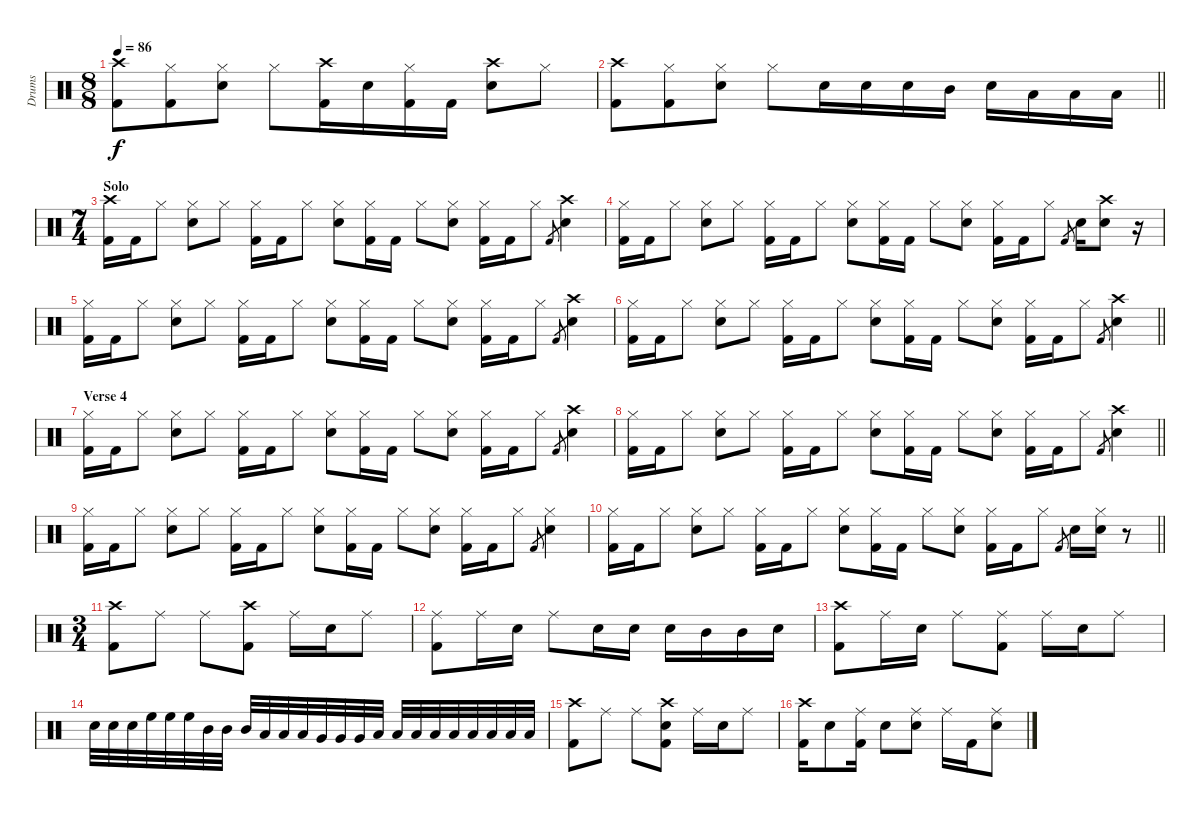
\track ("Drums" "Drums") {instrument percussion}
\staff {score}
\articulation defaults
\ts (8 8)
\tempo 86
\clef neutral
\ks c
("Crash high (hit)" "Kick (hit) 2").8{dy f} ("Hi-Hat (closed)" "Kick (hit) 2").8 ("Hi-Hat (closed)" "Snare (hit) 2").8 "Hi-Hat (closed)".8 ("Crash high (hit)" "Kick (hit) 2").16 "Snare (hit) 2".16 ("Hi-Hat (closed)" "Kick (hit) 2").16 "Kick (hit) 2".16 ("Crash high (hit)" "Snare (hit) 2").8 "Hi-Hat (closed)".8 |
\barLineRight lightlight
("Crash high (hit)" "Kick (hit) 2").8 ("Hi-Hat (closed)" "Kick (hit) 2").8 ("Hi-Hat (closed)" "Snare (hit) 2").8 "Hi-Hat (closed)".8 "Snare (hit) 2".16 "Snare (hit) 2".16 "Snare (hit) 2".16 "Mid Tom (hit)".16 "Snare (hit) 2".16 "Low Tom (hit)".16 "Low Tom (hit)".16 "Low Tom (hit)".16 |
\ts (7 4)
\section ("" "Solo")
("Crash high (hit)" "Kick (hit) 2").16 "Kick (hit) 2".16 "Hi-Hat (closed)".8 ("Hi-Hat (closed)" "Snare (hit) 2").8 "Hi-Hat (closed)".8 ("Hi-Hat (closed)" "Kick (hit) 2").16 "Kick (hit) 2".16 "Hi-Hat (closed)".8 ("Hi-Hat (closed)" "Snare (hit) 2").8 ("Hi-Hat (closed)" "Kick (hit) 2").16 "Kick (hit) 2".16 "Hi-Hat (closed)".8 ("Hi-Hat (closed)" "Snare (hit) 2").8 ("Hi-Hat (closed)" "Kick (hit) 2").16 "Kick (hit) 2".16 "Hi-Hat (closed)".8 "Kick (hit) 2".8{gr} ("Crash high (hit)" "Snare (hit) 2").4 |
("Hi-Hat (closed)" "Kick (hit) 2").16 "Kick (hit) 2".16 "Hi-Hat (closed)".8 ("Hi-Hat (closed)" "Snare (hit) 2").8 "Hi-Hat (closed)".8 ("Hi-Hat (closed)" "Kick (hit) 2").16 "Kick (hit) 2".16 "Hi-Hat (closed)".8 ("Hi-Hat (closed)" "Snare (hit) 2").8 ("Hi-Hat (closed)" "Kick (hit) 2").16 "Kick (hit) 2".16 "Hi-Hat (closed)".8 ("Hi-Hat (closed)" "Snare (hit) 2").8 ("Hi-Hat (closed)" "Kick (hit) 2").16 "Kick (hit) 2".16 "Hi-Hat (closed)".8 "Kick (hit) 2".8{gr} "Snare (hit) 2".16 ("Crash high (hit)" "Snare (hit) 2").8 r.16 |
("Hi-Hat (closed)" "Kick (hit) 2").16 "Kick (hit) 2".16 "Hi-Hat (closed)".8 ("Hi-Hat (closed)" "Snare (hit) 2").8 "Hi-Hat (closed)".8 ("Hi-Hat (closed)" "Kick (hit) 2").16 "Kick (hit) 2".16 "Hi-Hat (closed)".8 ("Hi-Hat (closed)" "Snare (hit) 2").8 ("Hi-Hat (closed)" "Kick (hit) 2").16 "Kick (hit) 2".16 "Hi-Hat (closed)".8 ("Hi-Hat (closed)" "Snare (hit) 2").8 ("Hi-Hat (closed)" "Kick (hit) 2").16 "Kick (hit) 2".16 "Hi-Hat (closed)".8 "Kick (hit) 2".8{gr} ("Crash high (hit)" "Snare (hit) 2").4 |
\barLineRight lightlight
("Hi-Hat (closed)" "Kick (hit) 2").16 "Kick (hit) 2".16 "Hi-Hat (closed)".8 ("Hi-Hat (closed)" "Snare (hit) 2").8 "Hi-Hat (closed)".8 ("Hi-Hat (closed)" "Kick (hit) 2").16 "Kick (hit) 2".16 "Hi-Hat (closed)".8 ("Hi-Hat (closed)" "Snare (hit) 2").8 ("Hi-Hat (closed)" "Kick (hit) 2").16 "Kick (hit) 2".16 "Hi-Hat (closed)".8 ("Hi-Hat (closed)" "Snare (hit) 2").8 ("Hi-Hat (closed)" "Kick (hit) 2").16 "Kick (hit) 2".16 "Hi-Hat (closed)".8 "Kick (hit) 2".8{gr} ("Crash high (hit)" "Snare (hit) 2").4 |
\section ("" "Verse 4")
("Hi-Hat (closed)" "Kick (hit) 2").16 "Kick (hit) 2".16 "Hi-Hat (closed)".8 ("Hi-Hat (closed)" "Snare (hit) 2").8 "Hi-Hat (closed)".8 ("Hi-Hat (closed)" "Kick (hit) 2").16 "Kick (hit) 2".16 "Hi-Hat (closed)".8 ("Hi-Hat (closed)" "Snare (hit) 2").8 ("Hi-Hat (closed)" "Kick (hit) 2").16 "Kick (hit) 2".16 "Hi-Hat (closed)".8 ("Hi-Hat (closed)" "Snare (hit) 2").8 ("Hi-Hat (closed)" "Kick (hit) 2").16 "Kick (hit) 2".16 "Hi-Hat (closed)".8 "Kick (hit) 2".8{gr} ("Crash high (hit)" "Snare (hit) 2").4 |
\barLineRight lightlight
("Hi-Hat (closed)" "Kick (hit) 2").16 "Kick (hit) 2".16 "Hi-Hat (closed)".8 ("Hi-Hat (closed)" "Snare (hit) 2").8 "Hi-Hat (closed)".8 ("Hi-Hat (closed)" "Kick (hit) 2").16 "Kick (hit) 2".16 "Hi-Hat (closed)".8 ("Hi-Hat (closed)" "Snare (hit) 2").8 ("Hi-Hat (closed)" "Kick (hit) 2").16 "Kick (hit) 2".16 "Hi-Hat (closed)".8 ("Hi-Hat (closed)" "Snare (hit) 2").8 ("Hi-Hat (closed)" "Kick (hit) 2").16 "Kick (hit) 2".16 "Hi-Hat (closed)".8 "Kick (hit) 2".8{gr} ("Crash high (hit)" "Snare (hit) 2").4 |
("Hi-Hat (closed)" "Kick (hit) 2").16 "Kick (hit) 2".16 "Hi-Hat (closed)".8 ("Hi-Hat (closed)" "Snare (hit) 2").8 "Hi-Hat (closed)".8 ("Hi-Hat (closed)" "Kick (hit) 2").16 "Kick (hit) 2".16 "Hi-Hat (closed)".8 ("Hi-Hat (closed)" "Snare (hit) 2").8 ("Hi-Hat (closed)" "Kick (hit) 2").16 "Kick (hit) 2".16 "Hi-Hat (closed)".8 ("Hi-Hat (closed)" "Snare (hit) 2").8 ("Hi-Hat (closed)" "Kick (hit) 2").16 "Kick (hit) 2".16 "Hi-Hat (closed)".8 "Kick (hit) 2".8{gr} ("Hi-Hat (closed)" "Snare (hit) 2").4 |
\barLineRight lightlight
("Hi-Hat (closed)" "Kick (hit) 2").16 "Kick (hit) 2".16 "Hi-Hat (closed)".8 ("Hi-Hat (closed)" "Snare (hit) 2").8 "Hi-Hat (closed)".8 ("Hi-Hat (closed)" "Kick (hit) 2").16 "Kick (hit) 2".16 "Hi-Hat (closed)".8 ("Hi-Hat (closed)" "Snare (hit) 2").8 ("Hi-Hat (closed)" "Kick (hit) 2").16 "Kick (hit) 2".16 "Hi-Hat (closed)".8 ("Hi-Hat (closed)" "Snare (hit) 2").8 ("Hi-Hat (closed)" "Kick (hit) 2").16 "Kick (hit) 2".16 "Hi-Hat (closed)".8 "Kick (hit) 2".8{gr} "Snare (hit) 2".16 ("Hi-Hat (closed)" "Snare (hit) 2").16 r.8 |
\ts (3 4)
("Crash high (hit)" "Kick (hit) 2").8 "Ride (middle)".8 "Ride (middle)".8 ("Crash high (hit)" "Kick (hit) 2").8 "Ride (middle)".16 "Snare (hit) 2".16 "Ride (middle)".8 |
("Ride (middle)" "Kick (hit) 2").8 "Ride (middle)".16 "Snare (hit) 2".16 "Ride (middle)".8 "Snare (hit) 2".16 "Snare (hit) 2".16 "Snare (hit) 2".16 "Mid Tom (hit)".16 "Mid Tom (hit)".16 "Snare (hit) 2".16 |
("Crash high (hit)" "Kick (hit) 2").8 "Ride (middle)".16 "Snare (hit) 2".16 "Ride (middle)".8 ("Ride (middle)" "Kick (hit) 2").8 "Ride (middle)".16 "Snare (hit) 2".16 "Ride (middle)".8 |
"Snare (hit) 2".32 "Snare (hit) 2".32 "Snare (hit) 2".32 "High Floor Tom (hit)".32 "High Floor Tom (hit)".32 "High Floor Tom (hit)".32 "Mid Tom (hit)".32 "Mid Tom (hit)".32 "Mid Tom (hit)".32 "Low Tom (hit)".32 "Low Tom (hit)".32 "Low Tom (hit)".32 "Very Low Tom (hit)".32 "Very Low Tom (hit)".32 "Very Low Tom (hit)".32 "Low Floor Tom (hit)".32 "Low Floor Tom (hit)".32 "Low Floor Tom (hit)".32 "Low Floor Tom (hit)".32 "Low Floor Tom (hit)".32 "Low Floor Tom (hit)".32 "Low Floor Tom (hit)".32 "Low Floor Tom (hit)".32 "Low Floor Tom (hit)".32 |
("Crash high (hit)" "Kick (hit) 2").8 "Ride (middle)".8 "Ride (middle)".8 ("Crash high (hit)" "Snare (hit) 2" "Kick (hit) 2").8 "Ride (middle)".16 "Snare (hit) 2".16 "Ride (middle)".8 |
("Crash high (hit)" "Kick (hit) 2").16 "Snare (hit) 2".8 ("Ride (middle)" "Kick (hit) 2").16 "Snare (hit) 2".8 ("Ride (middle)" "Snare (hit) 2").8 "Ride (middle)".16 "Kick (hit) 2".16 ("Ride (middle)" "Snare (hit) 2").8
